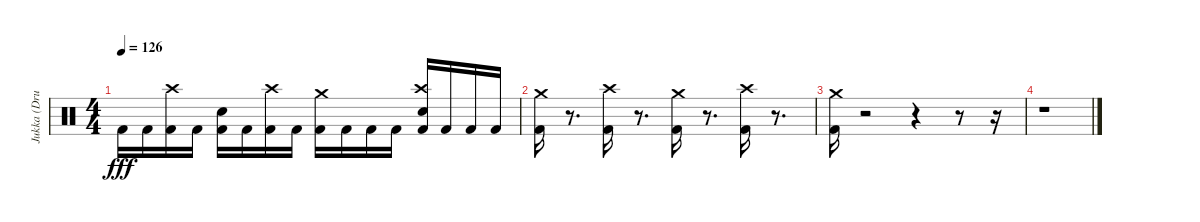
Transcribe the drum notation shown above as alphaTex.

\track ("Jukka (Drums)" "Jukka (Dru") {instrument percussion}
\staff {score}
\articulation defaults
\ts (4 4)
\tempo 126
\clef neutral
\ks c "Kick (hit) 2".16{dy fff} "Kick (hit) 2".16
("Kick (hit) 2" "Crash high (hit)").16 "Kick (hit) 2".16 ("Kick (hit) 2" "Electric Snare (hit)").16 "Kick (hit) 2".16 ("Kick (hit) 2" "Crash high (hit)").16 "Kick (hit) 2".16 ("Kick (hit) 2" "Crash medium (hit)").16 "Kick (hit) 2".16 "Kick (hit) 2".16 "Kick (hit) 2".16 ("Electric Snare (hit)" "Kick (hit) 2" "Crash high (hit)").16 "Kick (hit) 2".16 "Kick (hit) 2".16 "Kick (hit) 2".16 |
("Kick (hit) 2" "Crash medium (hit)").16 r.8{d} ("Kick (hit) 2" "Crash high (hit)").16 r.8{d} ("Kick (hit) 2" "Crash medium (hit)").16 r.8{d} ("Kick (hit) 2" "Crash high (hit)").16 r.8{d} |
("Kick (hit) 2" "Crash medium (hit)").16 r.2 r.4 r.8 r.16 |
r.1
